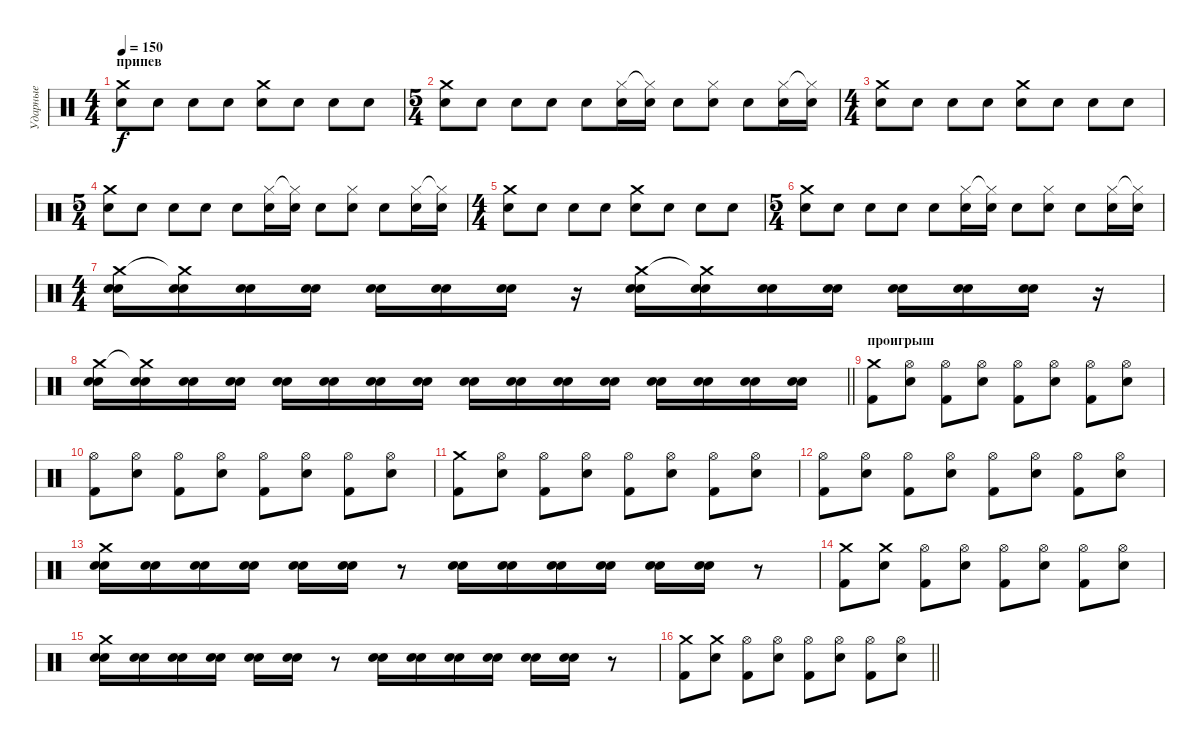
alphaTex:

\track ("Ударные" "Ударные") {instrument percussion}
\staff {score}
\articulation defaults
\ts (4 4)
\section ("" "припев")
\tempo 150
\clef neutral
\ks c
("Snare (hit) 2" "Crash medium (hit)").8{dy f} "Snare (hit) 2".8 "Snare (hit) 2".8 "Snare (hit) 2".8 ("Snare (hit) 2" "Crash medium (hit)").8 "Snare (hit) 2".8 "Snare (hit) 2".8 "Snare (hit) 2".8 |
\ts (5 4)
("Snare (hit) 2" "Crash medium (hit)").8 "Snare (hit) 2".8 "Snare (hit) 2".8 "Snare (hit) 2".8 "Electric Snare (hit)".8 ("Hi-Hat (closed)" "Electric Snare (hit)").16 ("Hi-Hat (closed)"{t} "Snare (hit) 2").16 "Snare (hit) 2".8 ("Hi-Hat (closed)" "Snare (hit) 2").8 "Snare (hit) 2".8 ("Hi-Hat (closed)" "Electric Snare (hit)").16 ("Hi-Hat (closed)"{t} "Snare (hit) 2").16 |
\ts (4 4)
("Snare (hit) 2" "Crash medium (hit)").8 "Snare (hit) 2".8 "Snare (hit) 2".8 "Snare (hit) 2".8 ("Snare (hit) 2" "Crash medium (hit)").8 "Snare (hit) 2".8 "Snare (hit) 2".8 "Snare (hit) 2".8 |
\ts (5 4)
("Snare (hit) 2" "Crash medium (hit)").8 "Snare (hit) 2".8 "Snare (hit) 2".8 "Snare (hit) 2".8 "Electric Snare (hit)".8 ("Hi-Hat (closed)" "Electric Snare (hit)").16 ("Hi-Hat (closed)"{t} "Snare (hit) 2").16 "Snare (hit) 2".8 ("Hi-Hat (closed)" "Snare (hit) 2").8 "Snare (hit) 2".8 ("Hi-Hat (closed)" "Electric Snare (hit)").16 ("Hi-Hat (closed)"{t} "Snare (hit) 2").16 |
\ts (4 4)
("Snare (hit) 2" "Crash medium (hit)").8 "Snare (hit) 2".8 "Snare (hit) 2".8 "Snare (hit) 2".8 ("Snare (hit) 2" "Crash medium (hit)").8 "Snare (hit) 2".8 "Snare (hit) 2".8 "Snare (hit) 2".8 |
\ts (5 4)
("Snare (hit) 2" "Crash medium (hit)").8 "Snare (hit) 2".8 "Snare (hit) 2".8 "Snare (hit) 2".8 "Electric Snare (hit)".8 ("Hi-Hat (closed)" "Electric Snare (hit)").16 ("Hi-Hat (closed)"{t} "Snare (hit) 2").16 "Snare (hit) 2".8 ("Hi-Hat (closed)" "Snare (hit) 2").8 "Snare (hit) 2".8 ("Hi-Hat (closed)" "Electric Snare (hit)").16 ("Hi-Hat (closed)"{t} "Snare (hit) 2").16 |
\ts (4 4)
("Electric Snare (hit)" "Snare (hit) 2" "Crash medium (hit)").16 ("Electric Snare (hit)" "Snare (hit) 2" "Crash medium (hit)"{t}).16 ("Electric Snare (hit)" "Snare (hit) 2").16 ("Electric Snare (hit)" "Snare (hit) 2").16 ("Electric Snare (hit)" "Snare (hit) 2").16 ("Electric Snare (hit)" "Snare (hit) 2").16 ("Electric Snare (hit)" "Snare (hit) 2").16 r.16 ("Electric Snare (hit)" "Snare (hit) 2" "Crash medium (hit)").16 ("Electric Snare (hit)" "Snare (hit) 2" "Crash medium (hit)"{t}).16 ("Electric Snare (hit)" "Snare (hit) 2").16 ("Electric Snare (hit)" "Snare (hit) 2").16 ("Electric Snare (hit)" "Snare (hit) 2").16 ("Electric Snare (hit)" "Snare (hit) 2").16 ("Electric Snare (hit)" "Snare (hit) 2").16 r.16 |
\barLineRight lightlight
("Electric Snare (hit)" "Snare (hit) 2" "Crash medium (hit)").16 ("Electric Snare (hit)" "Snare (hit) 2" "Crash medium (hit)"{t}).16 ("Electric Snare (hit)" "Snare (hit) 2").16 ("Electric Snare (hit)" "Snare (hit) 2").16 ("Electric Snare (hit)" "Snare (hit) 2").16 ("Electric Snare (hit)" "Snare (hit) 2").16 ("Electric Snare (hit)" "Snare (hit) 2").16 ("Electric Snare (hit)" "Snare (hit) 2").16 ("Electric Snare (hit)" "Snare (hit) 2").16 ("Electric Snare (hit)" "Snare (hit) 2").16 ("Electric Snare (hit)" "Snare (hit) 2").16 ("Electric Snare (hit)" "Snare (hit) 2").16 ("Electric Snare (hit)" "Snare (hit) 2").16 ("Electric Snare (hit)" "Snare (hit) 2").16 ("Electric Snare (hit)" "Snare (hit) 2").16 ("Electric Snare (hit)" "Snare (hit) 2").16 |
\section ("" "проигрыш")
("Kick (hit) 2" "Crash medium (hit)").8 ("Electric Snare (hit)" "Hi-Hat (open)").8 ("Kick (hit) 2" "Hi-Hat (open)").8 ("Electric Snare (hit)" "Hi-Hat (open)").8 ("Kick (hit) 2" "Hi-Hat (open)").8 ("Electric Snare (hit)" "Hi-Hat (open)").8 ("Kick (hit) 2" "Hi-Hat (open)").8 ("Electric Snare (hit)" "Hi-Hat (open)").8 |
("Kick (hit) 2" "Hi-Hat (open)").8 ("Electric Snare (hit)" "Hi-Hat (open)").8 ("Kick (hit) 2" "Hi-Hat (open)").8 ("Electric Snare (hit)" "Hi-Hat (open)").8 ("Kick (hit) 2" "Hi-Hat (open)").8 ("Electric Snare (hit)" "Hi-Hat (open)").8 ("Kick (hit) 2" "Hi-Hat (open)").8 ("Electric Snare (hit)" "Hi-Hat (open)").8 |
("Kick (hit) 2" "Crash medium (hit)").8 ("Electric Snare (hit)" "Hi-Hat (open)").8 ("Kick (hit) 2" "Hi-Hat (open)").8 ("Electric Snare (hit)" "Hi-Hat (open)").8 ("Kick (hit) 2" "Hi-Hat (open)").8 ("Electric Snare (hit)" "Hi-Hat (open)").8 ("Kick (hit) 2" "Hi-Hat (open)").8 ("Electric Snare (hit)" "Hi-Hat (open)").8 |
("Kick (hit) 2" "Hi-Hat (open)").8 ("Electric Snare (hit)" "Hi-Hat (open)").8 ("Kick (hit) 2" "Hi-Hat (open)").8 ("Electric Snare (hit)" "Hi-Hat (open)").8 ("Kick (hit) 2" "Hi-Hat (open)").8 ("Electric Snare (hit)" "Hi-Hat (open)").8 ("Kick (hit) 2" "Hi-Hat (open)").8 ("Electric Snare (hit)" "Hi-Hat (open)").8 |
("Electric Snare (hit)" "Snare (hit) 2" "Crash medium (hit)").16 ("Electric Snare (hit)" "Snare (hit) 2").16 ("Electric Snare (hit)" "Snare (hit) 2").16 ("Electric Snare (hit)" "Snare (hit) 2").16 ("Electric Snare (hit)" "Snare (hit) 2").16 ("Electric Snare (hit)" "Snare (hit) 2").16 r.8 ("Electric Snare (hit)" "Snare (hit) 2").16 ("Electric Snare (hit)" "Snare (hit) 2").16 ("Electric Snare (hit)" "Snare (hit) 2").16 ("Electric Snare (hit)" "Snare (hit) 2").16 ("Electric Snare (hit)" "Snare (hit) 2").16 ("Electric Snare (hit)" "Snare (hit) 2").16 r.8 |
("Kick (hit) 2" "Crash medium (hit)").8 ("Electric Snare (hit)" "Crash medium (hit)").8 ("Kick (hit) 2" "Hi-Hat (open)").8 ("Electric Snare (hit)" "Hi-Hat (open)").8 ("Kick (hit) 2" "Hi-Hat (open)").8 ("Electric Snare (hit)" "Hi-Hat (open)").8 ("Kick (hit) 2" "Hi-Hat (open)").8 ("Electric Snare (hit)" "Hi-Hat (open)").8 |
("Electric Snare (hit)" "Snare (hit) 2" "Crash medium (hit)").16 ("Electric Snare (hit)" "Snare (hit) 2").16 ("Electric Snare (hit)" "Snare (hit) 2").16 ("Electric Snare (hit)" "Snare (hit) 2").16 ("Electric Snare (hit)" "Snare (hit) 2").16 ("Electric Snare (hit)" "Snare (hit) 2").16 r.8 ("Electric Snare (hit)" "Snare (hit) 2").16 ("Electric Snare (hit)" "Snare (hit) 2").16 ("Electric Snare (hit)" "Snare (hit) 2").16 ("Electric Snare (hit)" "Snare (hit) 2").16 ("Electric Snare (hit)" "Snare (hit) 2").16 ("Electric Snare (hit)" "Snare (hit) 2").16 r.8 |
\barLineRight lightlight
("Kick (hit) 2" "Crash medium (hit)").8 ("Electric Snare (hit)" "Crash medium (hit)").8 ("Kick (hit) 2" "Hi-Hat (open)").8 ("Electric Snare (hit)" "Hi-Hat (open)").8 ("Kick (hit) 2" "Hi-Hat (open)").8 ("Electric Snare (hit)" "Hi-Hat (open)").8 ("Kick (hit) 2" "Hi-Hat (open)").8 ("Electric Snare (hit)" "Hi-Hat (open)").8
